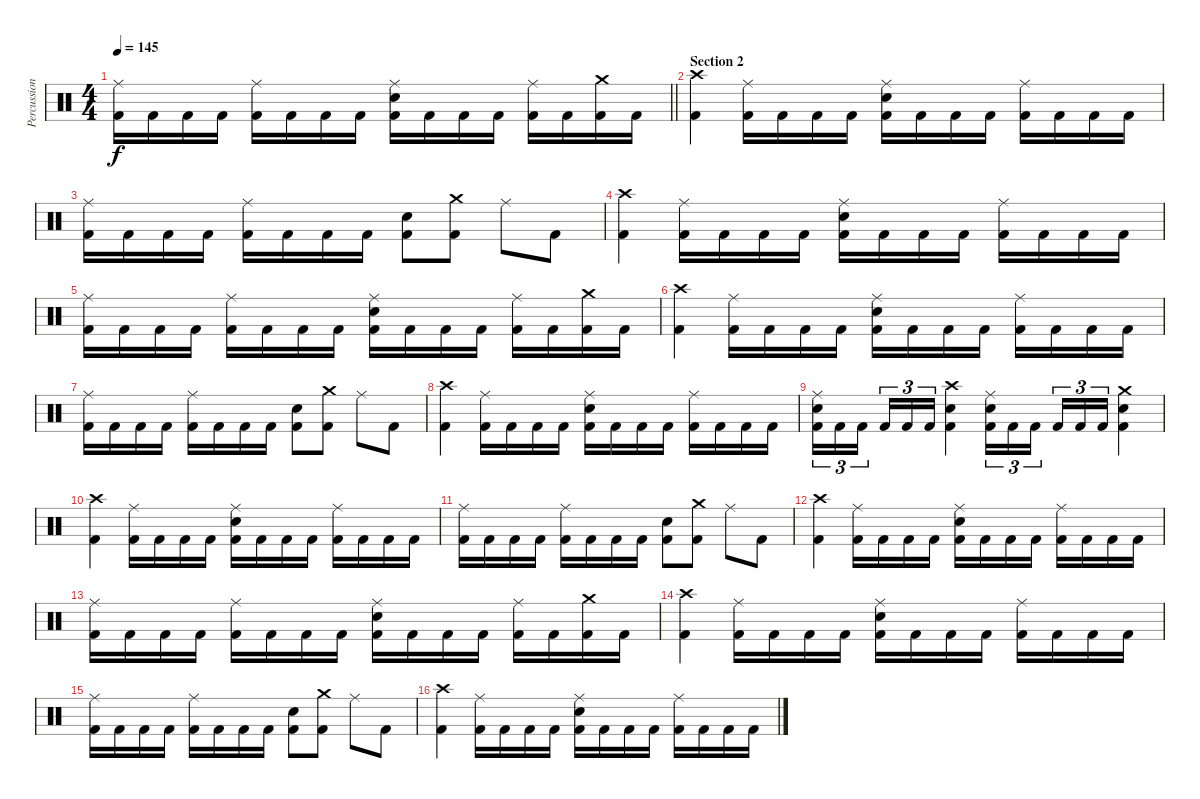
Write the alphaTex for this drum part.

\track ("Percussion" "Percussion") {instrument percussion}
\staff {score}
\articulation defaults
\ts (4 4)
\tempo 145
\clef neutral
\barLineRight lightlight
\ks c
("Ride (middle)" "Kick (hit) 2").16{dy f} "Kick (hit) 2".16 "Kick (hit) 2".16 "Kick (hit) 2".16 ("Ride (middle)" "Kick (hit) 2").16 "Kick (hit) 2".16 "Kick (hit) 2".16 "Kick (hit) 2".16 ("Ride (middle)" "Electric Snare (hit)" "Kick (hit) 2").16 "Kick (hit) 2".16 "Kick (hit) 2".16 "Kick (hit) 2".16 ("Ride (middle)" "Kick (hit) 2").16 "Kick (hit) 2".16 ("Crash medium (hit)" "Kick (hit) 2").16 "Kick (hit) 2".16 |
\section ("" "Section 2")
("Crash high (hit)" "Kick (hit) 2").4 ("Ride (middle)" "Kick (hit) 2").16 "Kick (hit) 2".16 "Kick (hit) 2".16 "Kick (hit) 2".16 ("Ride (middle)" "Electric Snare (hit)" "Kick (hit) 2").16 "Kick (hit) 2".16 "Kick (hit) 2".16 "Kick (hit) 2".16 ("Ride (middle)" "Kick (hit) 2").16 "Kick (hit) 2".16 "Kick (hit) 2".16 "Kick (hit) 2".16 |
("Ride (middle)" "Kick (hit) 2").16 "Kick (hit) 2".16 "Kick (hit) 2".16 "Kick (hit) 2".16 ("Ride (middle)" "Kick (hit) 2").16 "Kick (hit) 2".16 "Kick (hit) 2".16 "Kick (hit) 2".16 ("Electric Snare (hit)" "Kick (hit) 2").8 ("Crash medium (hit)" "Kick (hit) 2").8 "Ride (middle)".8 "Kick (hit) 2".8 |
("Crash high (hit)" "Kick (hit) 2").4 ("Ride (middle)" "Kick (hit) 2").16 "Kick (hit) 2".16 "Kick (hit) 2".16 "Kick (hit) 2".16 ("Ride (middle)" "Electric Snare (hit)" "Kick (hit) 2").16 "Kick (hit) 2".16 "Kick (hit) 2".16 "Kick (hit) 2".16 ("Ride (middle)" "Kick (hit) 2").16 "Kick (hit) 2".16 "Kick (hit) 2".16 "Kick (hit) 2".16 |
("Ride (middle)" "Kick (hit) 2").16 "Kick (hit) 2".16 "Kick (hit) 2".16 "Kick (hit) 2".16 ("Ride (middle)" "Kick (hit) 2").16 "Kick (hit) 2".16 "Kick (hit) 2".16 "Kick (hit) 2".16 ("Ride (middle)" "Electric Snare (hit)" "Kick (hit) 2").16 "Kick (hit) 2".16 "Kick (hit) 2".16 "Kick (hit) 2".16 ("Ride (middle)" "Kick (hit) 2").16 "Kick (hit) 2".16 ("Crash medium (hit)" "Kick (hit) 2").16 "Kick (hit) 2".16 |
("Crash high (hit)" "Kick (hit) 2").4 ("Ride (middle)" "Kick (hit) 2").16 "Kick (hit) 2".16 "Kick (hit) 2".16 "Kick (hit) 2".16 ("Ride (middle)" "Electric Snare (hit)" "Kick (hit) 2").16 "Kick (hit) 2".16 "Kick (hit) 2".16 "Kick (hit) 2".16 ("Ride (middle)" "Kick (hit) 2").16 "Kick (hit) 2".16 "Kick (hit) 2".16 "Kick (hit) 2".16 |
("Ride (middle)" "Kick (hit) 2").16 "Kick (hit) 2".16 "Kick (hit) 2".16 "Kick (hit) 2".16 ("Ride (middle)" "Kick (hit) 2").16 "Kick (hit) 2".16 "Kick (hit) 2".16 "Kick (hit) 2".16 ("Electric Snare (hit)" "Kick (hit) 2").8 ("Crash medium (hit)" "Kick (hit) 2").8 "Ride (middle)".8 "Kick (hit) 2".8 |
("Crash high (hit)" "Kick (hit) 2").4 ("Ride (middle)" "Kick (hit) 2").16 "Kick (hit) 2".16 "Kick (hit) 2".16 "Kick (hit) 2".16 ("Ride (middle)" "Electric Snare (hit)" "Kick (hit) 2").16 "Kick (hit) 2".16 "Kick (hit) 2".16 "Kick (hit) 2".16 ("Ride (middle)" "Kick (hit) 2").16 "Kick (hit) 2".16 "Kick (hit) 2".16 "Kick (hit) 2".16 |
("Ride (middle)" "Electric Snare (hit)" "Kick (hit) 2").16{tu (3 2)} "Kick (hit) 2".16{tu (3 2)} "Kick (hit) 2".16{tu (3 2) beam splitsecondary} "Kick (hit) 2".16{tu (3 2)} "Kick (hit) 2".16{tu (3 2)} "Kick (hit) 2".16{tu (3 2)} ("Crash high (hit)" "Electric Snare (hit)" "Kick (hit) 2").4 ("Ride (middle)" "Electric Snare (hit)" "Kick (hit) 2").16{tu (3 2)} "Kick (hit) 2".16{tu (3 2)} "Kick (hit) 2".16{tu (3 2) beam splitsecondary} "Kick (hit) 2".16{tu (3 2)} "Kick (hit) 2".16{tu (3 2)} "Kick (hit) 2".16{tu (3 2)} ("Crash medium (hit)" "Electric Snare (hit)" "Kick (hit) 2").4 |
("Crash high (hit)" "Kick (hit) 2").4 ("Ride (middle)" "Kick (hit) 2").16 "Kick (hit) 2".16 "Kick (hit) 2".16 "Kick (hit) 2".16 ("Ride (middle)" "Electric Snare (hit)" "Kick (hit) 2").16 "Kick (hit) 2".16 "Kick (hit) 2".16 "Kick (hit) 2".16 ("Ride (middle)" "Kick (hit) 2").16 "Kick (hit) 2".16 "Kick (hit) 2".16 "Kick (hit) 2".16 |
("Ride (middle)" "Kick (hit) 2").16 "Kick (hit) 2".16 "Kick (hit) 2".16 "Kick (hit) 2".16 ("Ride (middle)" "Kick (hit) 2").16 "Kick (hit) 2".16 "Kick (hit) 2".16 "Kick (hit) 2".16 ("Electric Snare (hit)" "Kick (hit) 2").8 ("Crash medium (hit)" "Kick (hit) 2").8 "Ride (middle)".8 "Kick (hit) 2".8 |
("Crash high (hit)" "Kick (hit) 2").4 ("Ride (middle)" "Kick (hit) 2").16 "Kick (hit) 2".16 "Kick (hit) 2".16 "Kick (hit) 2".16 ("Ride (middle)" "Electric Snare (hit)" "Kick (hit) 2").16 "Kick (hit) 2".16 "Kick (hit) 2".16 "Kick (hit) 2".16 ("Ride (middle)" "Kick (hit) 2").16 "Kick (hit) 2".16 "Kick (hit) 2".16 "Kick (hit) 2".16 |
("Ride (middle)" "Kick (hit) 2").16 "Kick (hit) 2".16 "Kick (hit) 2".16 "Kick (hit) 2".16 ("Ride (middle)" "Kick (hit) 2").16 "Kick (hit) 2".16 "Kick (hit) 2".16 "Kick (hit) 2".16 ("Ride (middle)" "Electric Snare (hit)" "Kick (hit) 2").16 "Kick (hit) 2".16 "Kick (hit) 2".16 "Kick (hit) 2".16 ("Ride (middle)" "Kick (hit) 2").16 "Kick (hit) 2".16 ("Crash medium (hit)" "Kick (hit) 2").16 "Kick (hit) 2".16 |
("Crash high (hit)" "Kick (hit) 2").4 ("Ride (middle)" "Kick (hit) 2").16 "Kick (hit) 2".16 "Kick (hit) 2".16 "Kick (hit) 2".16 ("Ride (middle)" "Electric Snare (hit)" "Kick (hit) 2").16 "Kick (hit) 2".16 "Kick (hit) 2".16 "Kick (hit) 2".16 ("Ride (middle)" "Kick (hit) 2").16 "Kick (hit) 2".16 "Kick (hit) 2".16 "Kick (hit) 2".16 |
("Ride (middle)" "Kick (hit) 2").16 "Kick (hit) 2".16 "Kick (hit) 2".16 "Kick (hit) 2".16 ("Ride (middle)" "Kick (hit) 2").16 "Kick (hit) 2".16 "Kick (hit) 2".16 "Kick (hit) 2".16 ("Electric Snare (hit)" "Kick (hit) 2").8 ("Crash medium (hit)" "Kick (hit) 2").8 "Ride (middle)".8 "Kick (hit) 2".8 |
("Crash high (hit)" "Kick (hit) 2").4 ("Ride (middle)" "Kick (hit) 2").16 "Kick (hit) 2".16 "Kick (hit) 2".16 "Kick (hit) 2".16 ("Ride (middle)" "Electric Snare (hit)" "Kick (hit) 2").16 "Kick (hit) 2".16 "Kick (hit) 2".16 "Kick (hit) 2".16 ("Ride (middle)" "Kick (hit) 2").16 "Kick (hit) 2".16 "Kick (hit) 2".16 "Kick (hit) 2".16
